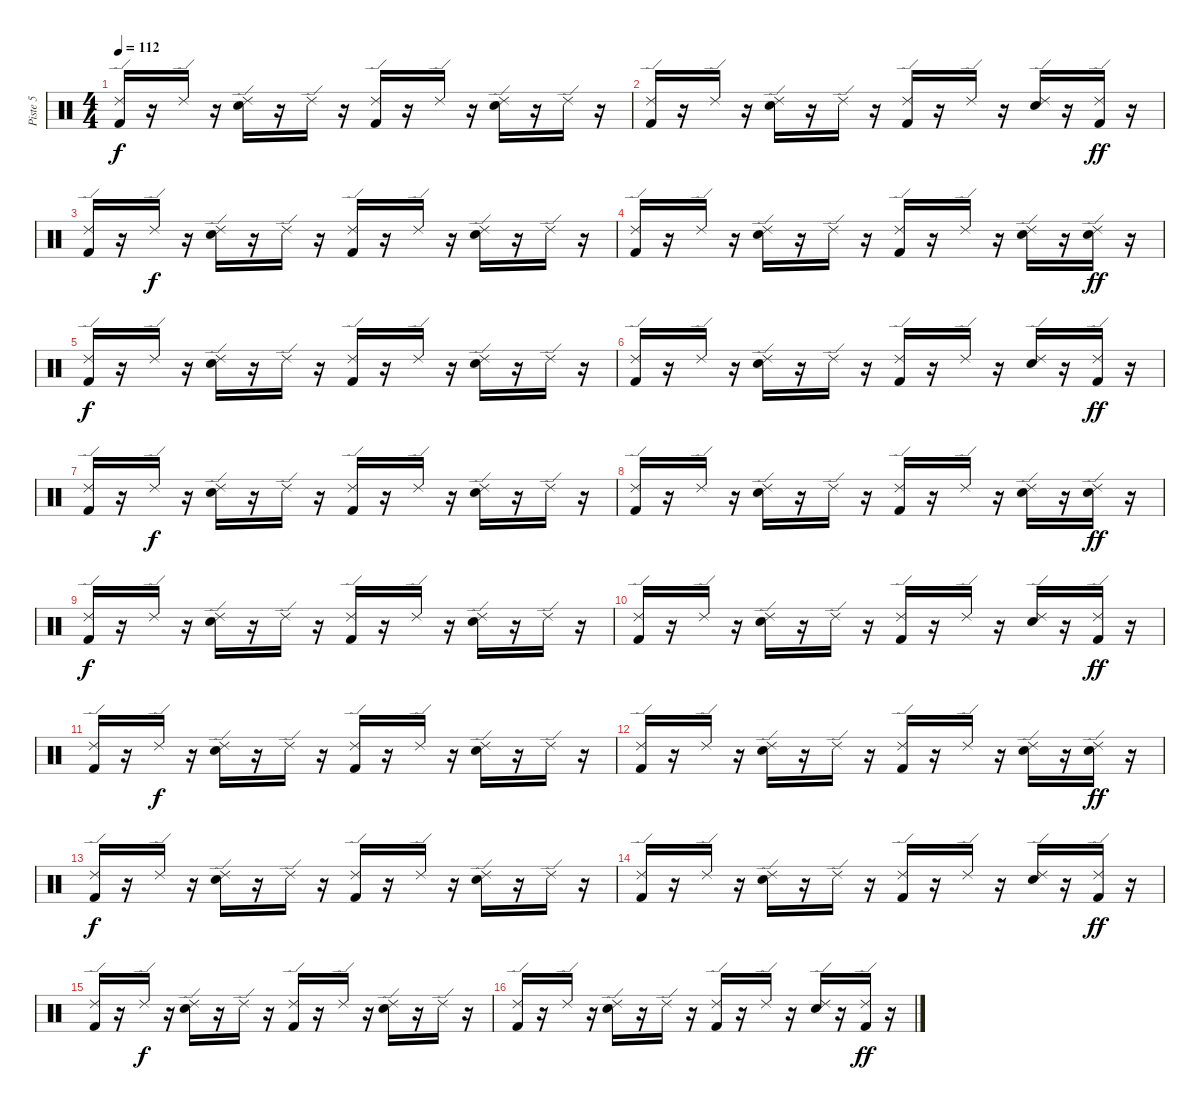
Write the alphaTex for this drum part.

\track ("Piste 5" "Piste 5") {instrument percussion}
\staff {score}
\articulation defaults
\ts (4 4)
\tempo 112
\clef neutral
\ks c
("Kick (hit) 2" "Ride (edge) 2").16{dy f} r.16 "Ride (edge) 2".16 r.16 ("Electric Snare (hit)" "Ride (edge) 2").16 r.16 "Ride (edge) 2".16 r.16 ("Kick (hit) 2" "Ride (edge) 2").16 r.16 "Ride (edge) 2".16 r.16 ("Electric Snare (hit)" "Ride (edge) 2").16 r.16 "Ride (edge) 2".16 r.16 |
("Kick (hit) 2" "Ride (edge) 2").16 r.16 "Ride (edge) 2".16 r.16 ("Electric Snare (hit)" "Ride (edge) 2").16 r.16 "Ride (edge) 2".16 r.16 ("Kick (hit) 2" "Ride (edge) 2").16 r.16 "Ride (edge) 2".16 r.16 ("Electric Snare (hit)" "Ride (edge) 2").16 r.16 ("Kick (hit) 2" "Ride (edge) 2").16{dy ff} r.16 |
("Kick (hit) 2" "Ride (edge) 2").16 r.16 "Ride (edge) 2".16{dy f} r.16 ("Electric Snare (hit)" "Ride (edge) 2").16 r.16 "Ride (edge) 2".16 r.16 ("Kick (hit) 2" "Ride (edge) 2").16 r.16 "Ride (edge) 2".16 r.16 ("Electric Snare (hit)" "Ride (edge) 2").16 r.16 "Ride (edge) 2".16 r.16 |
("Kick (hit) 2" "Ride (edge) 2").16 r.16 "Ride (edge) 2".16 r.16 ("Electric Snare (hit)" "Ride (edge) 2").16 r.16 "Ride (edge) 2".16 r.16 ("Kick (hit) 2" "Ride (edge) 2").16 r.16 "Ride (edge) 2".16 r.16 ("Electric Snare (hit)" "Ride (edge) 2").16 r.16 ("Electric Snare (hit)" "Ride (edge) 2").16{dy ff} r.16 |
("Kick (hit) 2" "Ride (edge) 2").16{dy f} r.16 "Ride (edge) 2".16 r.16 ("Electric Snare (hit)" "Ride (edge) 2").16 r.16 "Ride (edge) 2".16 r.16 ("Kick (hit) 2" "Ride (edge) 2").16 r.16 "Ride (edge) 2".16 r.16 ("Electric Snare (hit)" "Ride (edge) 2").16 r.16 "Ride (edge) 2".16 r.16 |
("Kick (hit) 2" "Ride (edge) 2").16 r.16 "Ride (edge) 2".16 r.16 ("Electric Snare (hit)" "Ride (edge) 2").16 r.16 "Ride (edge) 2".16 r.16 ("Kick (hit) 2" "Ride (edge) 2").16 r.16 "Ride (edge) 2".16 r.16 ("Electric Snare (hit)" "Ride (edge) 2").16 r.16 ("Kick (hit) 2" "Ride (edge) 2").16{dy ff} r.16 |
("Kick (hit) 2" "Ride (edge) 2").16 r.16 "Ride (edge) 2".16{dy f} r.16 ("Electric Snare (hit)" "Ride (edge) 2").16 r.16 "Ride (edge) 2".16 r.16 ("Kick (hit) 2" "Ride (edge) 2").16 r.16 "Ride (edge) 2".16 r.16 ("Electric Snare (hit)" "Ride (edge) 2").16 r.16 "Ride (edge) 2".16 r.16 |
("Kick (hit) 2" "Ride (edge) 2").16 r.16 "Ride (edge) 2".16 r.16 ("Electric Snare (hit)" "Ride (edge) 2").16 r.16 "Ride (edge) 2".16 r.16 ("Kick (hit) 2" "Ride (edge) 2").16 r.16 "Ride (edge) 2".16 r.16 ("Electric Snare (hit)" "Ride (edge) 2").16 r.16 ("Electric Snare (hit)" "Ride (edge) 2").16{dy ff} r.16 |
("Kick (hit) 2" "Ride (edge) 2").16{dy f} r.16 "Ride (edge) 2".16 r.16 ("Electric Snare (hit)" "Ride (edge) 2").16 r.16 "Ride (edge) 2".16 r.16 ("Kick (hit) 2" "Ride (edge) 2").16 r.16 "Ride (edge) 2".16 r.16 ("Electric Snare (hit)" "Ride (edge) 2").16 r.16 "Ride (edge) 2".16 r.16 |
("Kick (hit) 2" "Ride (edge) 2").16 r.16 "Ride (edge) 2".16 r.16 ("Electric Snare (hit)" "Ride (edge) 2").16 r.16 "Ride (edge) 2".16 r.16 ("Kick (hit) 2" "Ride (edge) 2").16 r.16 "Ride (edge) 2".16 r.16 ("Electric Snare (hit)" "Ride (edge) 2").16 r.16 ("Kick (hit) 2" "Ride (edge) 2").16{dy ff} r.16 |
("Kick (hit) 2" "Ride (edge) 2").16 r.16 "Ride (edge) 2".16{dy f} r.16 ("Electric Snare (hit)" "Ride (edge) 2").16 r.16 "Ride (edge) 2".16 r.16 ("Kick (hit) 2" "Ride (edge) 2").16 r.16 "Ride (edge) 2".16 r.16 ("Electric Snare (hit)" "Ride (edge) 2").16 r.16 "Ride (edge) 2".16 r.16 |
("Kick (hit) 2" "Ride (edge) 2").16 r.16 "Ride (edge) 2".16 r.16 ("Electric Snare (hit)" "Ride (edge) 2").16 r.16 "Ride (edge) 2".16 r.16 ("Kick (hit) 2" "Ride (edge) 2").16 r.16 "Ride (edge) 2".16 r.16 ("Electric Snare (hit)" "Ride (edge) 2").16 r.16 ("Electric Snare (hit)" "Ride (edge) 2").16{dy ff} r.16 |
("Kick (hit) 2" "Ride (edge) 2").16{dy f} r.16 "Ride (edge) 2".16 r.16 ("Electric Snare (hit)" "Ride (edge) 2").16 r.16 "Ride (edge) 2".16 r.16 ("Kick (hit) 2" "Ride (edge) 2").16 r.16 "Ride (edge) 2".16 r.16 ("Electric Snare (hit)" "Ride (edge) 2").16 r.16 "Ride (edge) 2".16 r.16 |
("Kick (hit) 2" "Ride (edge) 2").16 r.16 "Ride (edge) 2".16 r.16 ("Electric Snare (hit)" "Ride (edge) 2").16 r.16 "Ride (edge) 2".16 r.16 ("Kick (hit) 2" "Ride (edge) 2").16 r.16 "Ride (edge) 2".16 r.16 ("Electric Snare (hit)" "Ride (edge) 2").16 r.16 ("Kick (hit) 2" "Ride (edge) 2").16{dy ff} r.16 |
("Kick (hit) 2" "Ride (edge) 2").16 r.16 "Ride (edge) 2".16{dy f} r.16 ("Electric Snare (hit)" "Ride (edge) 2").16 r.16 "Ride (edge) 2".16 r.16 ("Kick (hit) 2" "Ride (edge) 2").16 r.16 "Ride (edge) 2".16 r.16 ("Electric Snare (hit)" "Ride (edge) 2").16 r.16 "Ride (edge) 2".16 r.16 |
("Kick (hit) 2" "Ride (edge) 2").16 r.16 "Ride (edge) 2".16 r.16 ("Electric Snare (hit)" "Ride (edge) 2").16 r.16 "Ride (edge) 2".16 r.16 ("Kick (hit) 2" "Ride (edge) 2").16 r.16 "Ride (edge) 2".16 r.16 ("Electric Snare (hit)" "Ride (edge) 2").16 r.16 ("Kick (hit) 2" "Ride (edge) 2").16{dy ff} r.16
